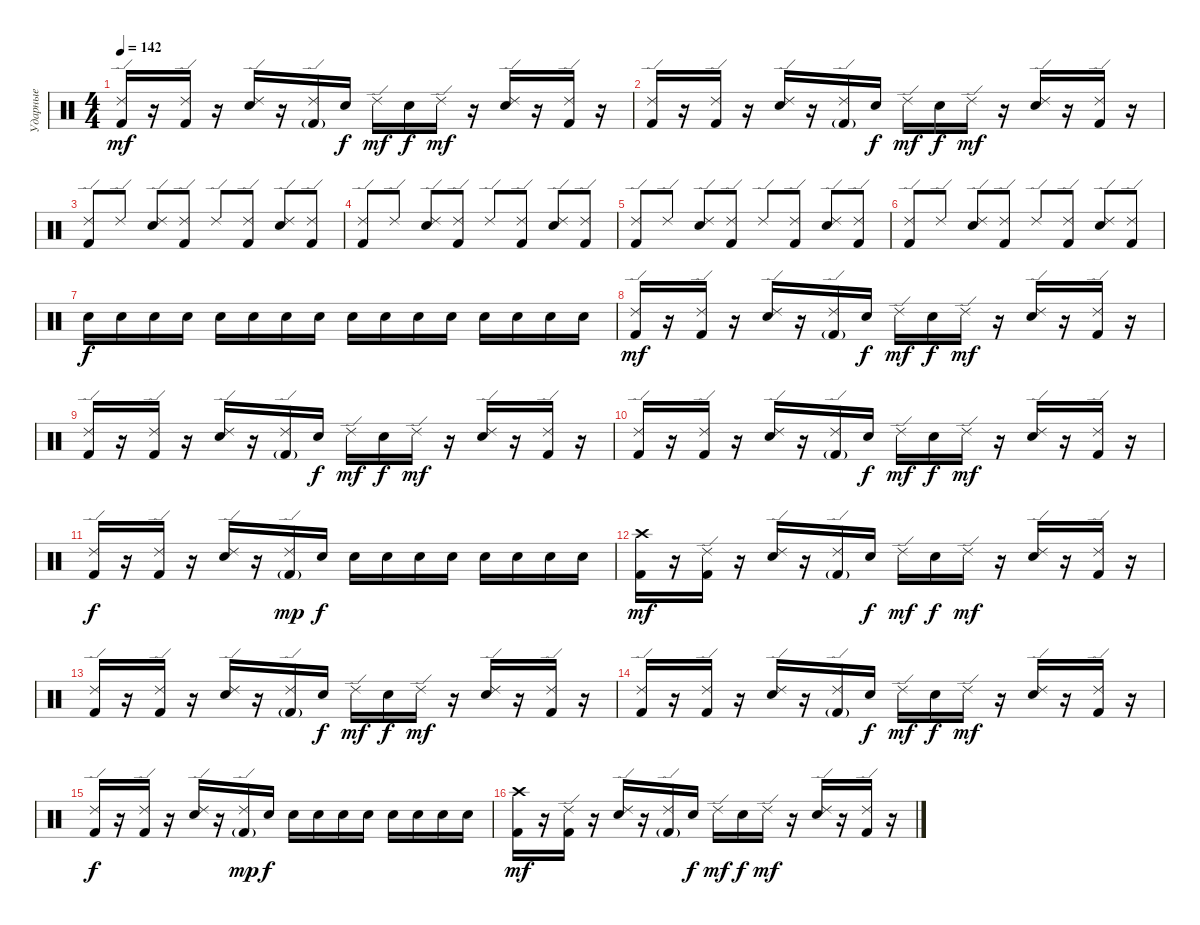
\track ("Ударные" "Ударные") {instrument percussion}
\staff {score}
\articulation defaults
\ts (4 4)
\tempo 142
\clef neutral
\ks c
("Kick (hit) 2" "Ride (edge) 2").16{dy mf} r.16 ("Kick (hit) 2" "Ride (edge) 2").16 r.16 ("Electric Snare (hit)" "Ride (edge) 2").16 r.16 ("Kick (hit) 2"{g} "Ride (edge) 2").16 "Electric Snare (hit)".16{dy f} "Ride (edge) 2".16{dy mf} "Electric Snare (hit)".16{dy f} "Ride (edge) 2".16{dy mf} r.16 ("Electric Snare (hit)" "Ride (edge) 2").16 r.16 ("Kick (hit) 2" "Ride (edge) 2").16 r.16 |
("Kick (hit) 2" "Ride (edge) 2").16 r.16 ("Kick (hit) 2" "Ride (edge) 2").16 r.16 ("Electric Snare (hit)" "Ride (edge) 2").16 r.16 ("Kick (hit) 2"{g} "Ride (edge) 2").16 "Electric Snare (hit)".16{dy f} "Ride (edge) 2".16{dy mf} "Electric Snare (hit)".16{dy f} "Ride (edge) 2".16{dy mf} r.16 ("Electric Snare (hit)" "Ride (edge) 2").16 r.16 ("Kick (hit) 2" "Ride (edge) 2").16 r.16 |
("Kick (hit) 2" "Ride (edge) 2").8 "Ride (edge) 2".8 ("Electric Snare (hit)" "Ride (edge) 2").8 ("Kick (hit) 2" "Ride (edge) 2").8 "Ride (edge) 2".8 ("Kick (hit) 2" "Ride (edge) 2").8 ("Electric Snare (hit)" "Ride (edge) 2").8 ("Kick (hit) 2" "Ride (edge) 2").8 |
("Kick (hit) 2" "Ride (edge) 2").8 "Ride (edge) 2".8 ("Electric Snare (hit)" "Ride (edge) 2").8 ("Kick (hit) 2" "Ride (edge) 2").8 "Ride (edge) 2".8 ("Kick (hit) 2" "Ride (edge) 2").8 ("Electric Snare (hit)" "Ride (edge) 2").8 ("Kick (hit) 2" "Ride (edge) 2").8 |
("Kick (hit) 2" "Ride (edge) 2").8 "Ride (edge) 2".8 ("Electric Snare (hit)" "Ride (edge) 2").8 ("Kick (hit) 2" "Ride (edge) 2").8 "Ride (edge) 2".8 ("Kick (hit) 2" "Ride (edge) 2").8 ("Electric Snare (hit)" "Ride (edge) 2").8 ("Kick (hit) 2" "Ride (edge) 2").8 |
("Kick (hit) 2" "Ride (edge) 2").8 "Ride (edge) 2".8 ("Electric Snare (hit)" "Ride (edge) 2").8 ("Kick (hit) 2" "Ride (edge) 2").8 "Ride (edge) 2".8 ("Kick (hit) 2" "Ride (edge) 2").8 ("Electric Snare (hit)" "Ride (edge) 2").8 ("Kick (hit) 2" "Ride (edge) 2").8 |
"Electric Snare (hit)".16{dy f} "Electric Snare (hit)".16 "Electric Snare (hit)".16 "Electric Snare (hit)".16 "Electric Snare (hit)".16 "Electric Snare (hit)".16 "Electric Snare (hit)".16 "Electric Snare (hit)".16 "Electric Snare (hit)".16 "Electric Snare (hit)".16 "Electric Snare (hit)".16 "Electric Snare (hit)".16 "Electric Snare (hit)".16 "Electric Snare (hit)".16 "Electric Snare (hit)".16 "Electric Snare (hit)".16 |
("Kick (hit) 2" "Ride (edge) 2").16{dy mf} r.16 ("Kick (hit) 2" "Ride (edge) 2").16 r.16 ("Electric Snare (hit)" "Ride (edge) 2").16 r.16 ("Kick (hit) 2"{g} "Ride (edge) 2").16 "Electric Snare (hit)".16{dy f} "Ride (edge) 2".16{dy mf} "Electric Snare (hit)".16{dy f} "Ride (edge) 2".16{dy mf} r.16 ("Electric Snare (hit)" "Ride (edge) 2").16 r.16 ("Kick (hit) 2" "Ride (edge) 2").16 r.16 |
("Kick (hit) 2" "Ride (edge) 2").16 r.16 ("Kick (hit) 2" "Ride (edge) 2").16 r.16 ("Electric Snare (hit)" "Ride (edge) 2").16 r.16 ("Kick (hit) 2"{g} "Ride (edge) 2").16 "Electric Snare (hit)".16{dy f} "Ride (edge) 2".16{dy mf} "Electric Snare (hit)".16{dy f} "Ride (edge) 2".16{dy mf} r.16 ("Electric Snare (hit)" "Ride (edge) 2").16 r.16 ("Kick (hit) 2" "Ride (edge) 2").16 r.16 |
("Kick (hit) 2" "Ride (edge) 2").16 r.16 ("Kick (hit) 2" "Ride (edge) 2").16 r.16 ("Electric Snare (hit)" "Ride (edge) 2").16 r.16 ("Kick (hit) 2"{g} "Ride (edge) 2").16 "Electric Snare (hit)".16{dy f} "Ride (edge) 2".16{dy mf} "Electric Snare (hit)".16{dy f} "Ride (edge) 2".16{dy mf} r.16 ("Electric Snare (hit)" "Ride (edge) 2").16 r.16 ("Kick (hit) 2" "Ride (edge) 2").16 r.16 |
("Kick (hit) 2" "Ride (edge) 2").16{dy f} r.16 ("Kick (hit) 2" "Ride (edge) 2").16 r.16 ("Electric Snare (hit)" "Ride (edge) 2").16 r.16 ("Kick (hit) 2"{g} "Ride (edge) 2").16{dy mp} "Electric Snare (hit)".16{dy f} "Electric Snare (hit)".16 "Electric Snare (hit)".16 "Electric Snare (hit)".16 "Electric Snare (hit)".16 "Electric Snare (hit)".16 "Electric Snare (hit)".16 "Electric Snare (hit)".16 "Electric Snare (hit)".16 |
("Kick (hit) 2" "Crash high (hit)").16{dy mf} r.16 ("Kick (hit) 2" "Ride (edge) 2").16 r.16 ("Electric Snare (hit)" "Ride (edge) 2").16 r.16 ("Kick (hit) 2"{g} "Ride (edge) 2").16 "Electric Snare (hit)".16{dy f} "Ride (edge) 2".16{dy mf} "Electric Snare (hit)".16{dy f} "Ride (edge) 2".16{dy mf} r.16 ("Electric Snare (hit)" "Ride (edge) 2").16 r.16 ("Kick (hit) 2" "Ride (edge) 2").16 r.16 |
("Kick (hit) 2" "Ride (edge) 2").16 r.16 ("Kick (hit) 2" "Ride (edge) 2").16 r.16 ("Electric Snare (hit)" "Ride (edge) 2").16 r.16 ("Kick (hit) 2"{g} "Ride (edge) 2").16 "Electric Snare (hit)".16{dy f} "Ride (edge) 2".16{dy mf} "Electric Snare (hit)".16{dy f} "Ride (edge) 2".16{dy mf} r.16 ("Electric Snare (hit)" "Ride (edge) 2").16 r.16 ("Kick (hit) 2" "Ride (edge) 2").16 r.16 |
("Kick (hit) 2" "Ride (edge) 2").16 r.16 ("Kick (hit) 2" "Ride (edge) 2").16 r.16 ("Electric Snare (hit)" "Ride (edge) 2").16 r.16 ("Kick (hit) 2"{g} "Ride (edge) 2").16 "Electric Snare (hit)".16{dy f} "Ride (edge) 2".16{dy mf} "Electric Snare (hit)".16{dy f} "Ride (edge) 2".16{dy mf} r.16 ("Electric Snare (hit)" "Ride (edge) 2").16 r.16 ("Kick (hit) 2" "Ride (edge) 2").16 r.16 |
("Kick (hit) 2" "Ride (edge) 2").16{dy f} r.16 ("Kick (hit) 2" "Ride (edge) 2").16 r.16 ("Electric Snare (hit)" "Ride (edge) 2").16 r.16 ("Kick (hit) 2"{g} "Ride (edge) 2").16{dy mp} "Electric Snare (hit)".16{dy f} "Electric Snare (hit)".16 "Electric Snare (hit)".16 "Electric Snare (hit)".16 "Electric Snare (hit)".16 "Electric Snare (hit)".16 "Electric Snare (hit)".16 "Electric Snare (hit)".16 "Electric Snare (hit)".16 |
("Kick (hit) 2" "Crash high (hit)").16{dy mf} r.16 ("Kick (hit) 2" "Ride (edge) 2").16 r.16 ("Electric Snare (hit)" "Ride (edge) 2").16 r.16 ("Kick (hit) 2"{g} "Ride (edge) 2").16 "Electric Snare (hit)".16{dy f} "Ride (edge) 2".16{dy mf} "Electric Snare (hit)".16{dy f} "Ride (edge) 2".16{dy mf} r.16 ("Electric Snare (hit)" "Ride (edge) 2").16 r.16 ("Kick (hit) 2" "Ride (edge) 2").16 r.16
